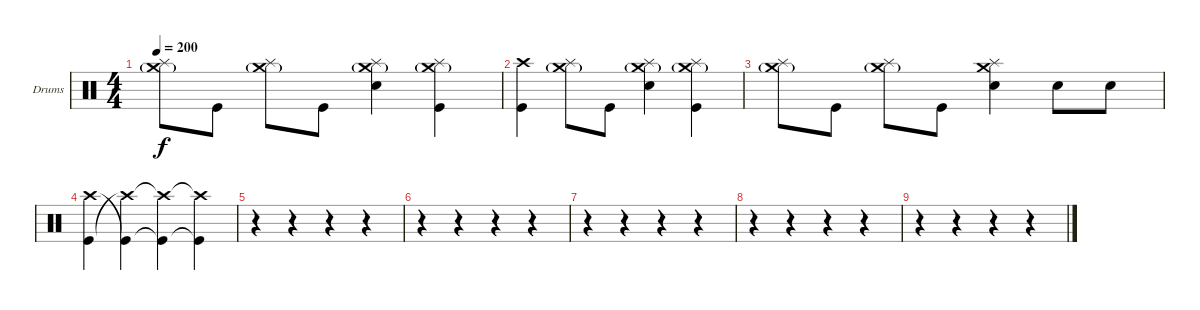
\bracketExtendMode groupsimilarinstruments
\firstSystemTrackNameOrientation horizontal
\otherSystemsTrackNameOrientation horizontal
\track ("Canadien" "Drums") {instrument percussion}
\staff {score}
\articulation defaults
\ts (4 4)
\tempo 200
\clef neutral
\ks c
("Crash medium (hit)"{g} "Splash (hit)").8{dy f} "Kick (hit)".8 ("Crash medium (hit)"{g} "Splash (hit)").8 "Kick (hit)".8 ("Crash medium (hit)"{g} "Splash (hit)" "Snare (hit) 2").4 ("Crash medium (hit)"{g} "Splash (hit)" "Kick (hit)").4 |
("Crash high (hit)" "Kick (hit)").4 ("Crash medium (hit)"{g} "Splash (hit)").8 "Kick (hit)".8 ("Crash medium (hit)"{g} "Splash (hit)" "Snare (hit) 2").4 ("Crash medium (hit)"{g} "Splash (hit)" "Kick (hit)").4 |
("Crash medium (hit)"{g} "Splash (hit)").8 "Kick (hit)".8 ("Crash medium (hit)"{g} "Splash (hit)").8 "Kick (hit)".8 ("Crash medium (hit)" "Splash (hit)" "Snare (hit) 2").4 "Snare (hit) 2".8 "Snare (hit) 2".8 |
("Crash high (hit)" "Kick (hit)").4 ("Kick (hit)"{t} "Crash high (hit)"{t}).4 ("Kick (hit)"{t} "Crash high (hit)"{t}).4 ("Kick (hit)"{t} "Crash high (hit)"{t}).4 |
r.4 r.4 r.4 r.4 |
r.4 r.4 r.4 r.4 |
r.4 r.4 r.4 r.4 |
r.4 r.4 r.4 r.4 |
r.4 r.4 r.4 r.4
